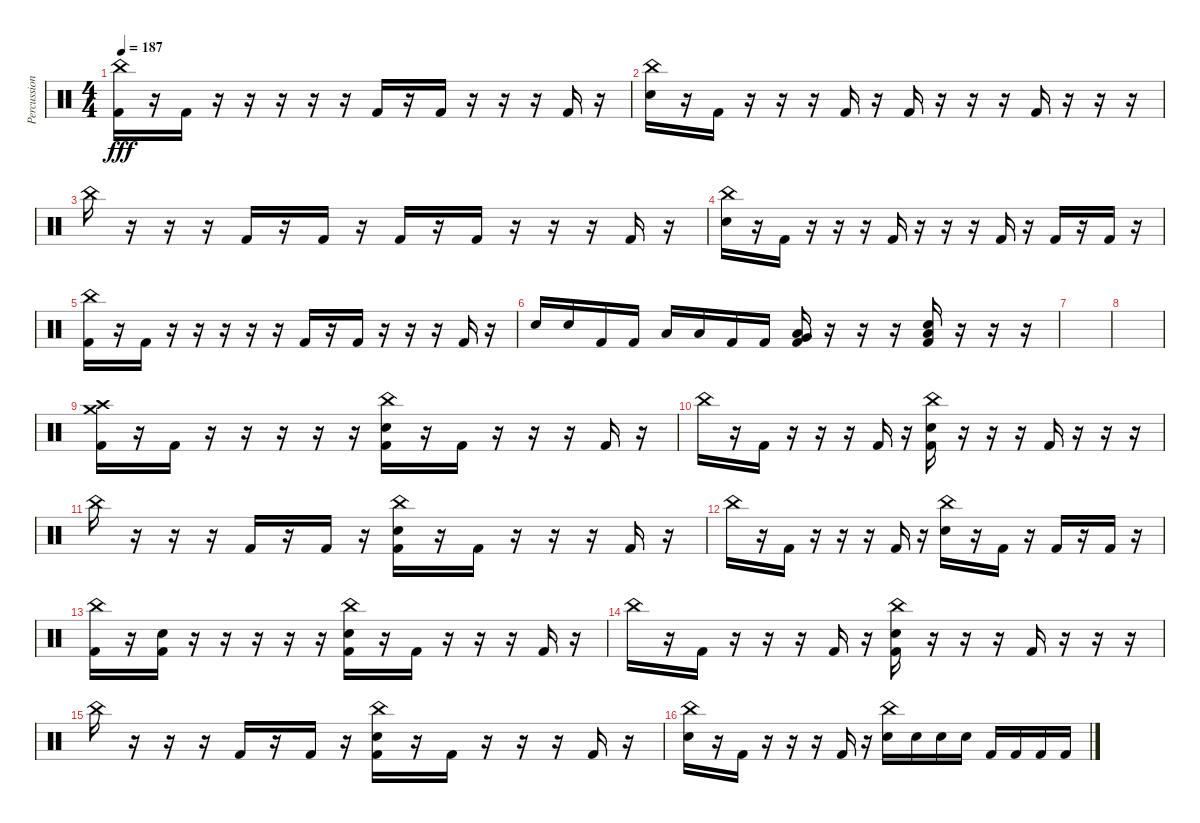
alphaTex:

\track ("Percussion" "Percussion") {instrument percussion}
\staff {score}
\articulation defaults
\ts (4 4)
\tempo 187
\clef neutral
\ks c
("China (hit)" "Kick (hit) 2").16{dy fff} r.16 "Kick (hit) 2".16 r.16 r.16 r.16 r.16 r.16 "Kick (hit) 2".16 r.16 "Kick (hit) 2".16 r.16 r.16 r.16 "Kick (hit) 2".16 r.16 |
("China (hit)" "Snare (hit) 2").16 r.16 "Kick (hit) 2".16 r.16 r.16 r.16 "Kick (hit) 2".16 r.16 "Kick (hit) 2".16 r.16 r.16 r.16 "Kick (hit) 2".16 r.16 r.16 r.16 |
"China (hit)".16 r.16 r.16 r.16 "Kick (hit) 2".16 r.16 "Kick (hit) 2".16 r.16 "Kick (hit) 2".16 r.16 "Kick (hit) 2".16 r.16 r.16 r.16 "Kick (hit) 2".16 r.16 |
("China (hit)" "Snare (hit) 2").16 r.16 "Kick (hit) 2".16 r.16 r.16 r.16 "Kick (hit) 2".16 r.16 r.16 r.16 "Kick (hit) 2".16 r.16 "Kick (hit) 2".16 r.16 "Kick (hit) 2".16 r.16 |
("China (hit)" "Kick (hit) 2").16 r.16 "Kick (hit) 2".16 r.16 r.16 r.16 r.16 r.16 "Kick (hit) 2".16 r.16 "Kick (hit) 2".16 r.16 r.16 r.16 "Kick (hit) 2".16 r.16 |
"Snare (hit) 2".16 "Snare (hit) 2".16 "Kick (hit) 2".16 "Kick (hit) 2".16 "Low Tom (hit)".16 "Low Tom (hit)".16 "Kick (hit) 2".16 "Kick (hit) 2".16 ("Very Low Tom (hit)" "Low Floor Tom (hit)" "Kick (hit) 2").16 r.16 r.16 r.16 ("Low Floor Tom (hit)" "Snare (hit) 2" "Kick (hit) 2").16 r.16 r.16 r.16 |
|
|
("Crash medium (hit)" "Crash high (hit)" "Kick (hit) 2").16 r.16 "Kick (hit) 2".16 r.16 r.16 r.16 r.16 r.16 ("China (hit)" "Snare (hit) 2" "Kick (hit) 2").16 r.16 "Kick (hit) 2".16 r.16 r.16 r.16 "Kick (hit) 2".16 r.16 |
"China (hit)".16 r.16 "Kick (hit) 2".16 r.16 r.16 r.16 "Kick (hit) 2".16 r.16 ("China (hit)" "Snare (hit) 2" "Kick (hit) 2").16 r.16 r.16 r.16 "Kick (hit) 2".16 r.16 r.16 r.16 |
"China (hit)".16 r.16 r.16 r.16 "Kick (hit) 2".16 r.16 "Kick (hit) 2".16 r.16 ("China (hit)" "Snare (hit) 2" "Kick (hit) 2").16 r.16 "Kick (hit) 2".16 r.16 r.16 r.16 "Kick (hit) 2".16 r.16 |
"China (hit)".16 r.16 "Kick (hit) 2".16 r.16 r.16 r.16 "Kick (hit) 2".16 r.16 ("China (hit)" "Snare (hit) 2").16 r.16 "Kick (hit) 2".16 r.16 "Kick (hit) 2".16 r.16 "Kick (hit) 2".16 r.16 |
("China (hit)" "Kick (hit) 2").16 r.16 ("Snare (hit) 2" "Kick (hit) 2").16 r.16 r.16 r.16 r.16 r.16 ("China (hit)" "Snare (hit) 2" "Kick (hit) 2").16 r.16 "Kick (hit) 2".16 r.16 r.16 r.16 "Kick (hit) 2".16 r.16 |
"China (hit)".16 r.16 "Kick (hit) 2".16 r.16 r.16 r.16 "Kick (hit) 2".16 r.16 ("China (hit)" "Snare (hit) 2" "Kick (hit) 2").16 r.16 r.16 r.16 "Kick (hit) 2".16 r.16 r.16 r.16 |
"China (hit)".16 r.16 r.16 r.16 "Kick (hit) 2".16 r.16 "Kick (hit) 2".16 r.16 ("China (hit)" "Snare (hit) 2" "Kick (hit) 2").16 r.16 "Kick (hit) 2".16 r.16 r.16 r.16 "Kick (hit) 2".16 r.16 |
("China (hit)" "Snare (hit) 2").16 r.16 "Kick (hit) 2".16 r.16 r.16 r.16 "Kick (hit) 2".16 r.16 ("China (hit)" "Snare (hit) 2").16 "Snare (hit) 2".16 "Snare (hit) 2".16 "Snare (hit) 2".16 "Kick (hit) 2".16 "Kick (hit) 2".16 "Kick (hit) 2".16 "Kick (hit) 2".16
